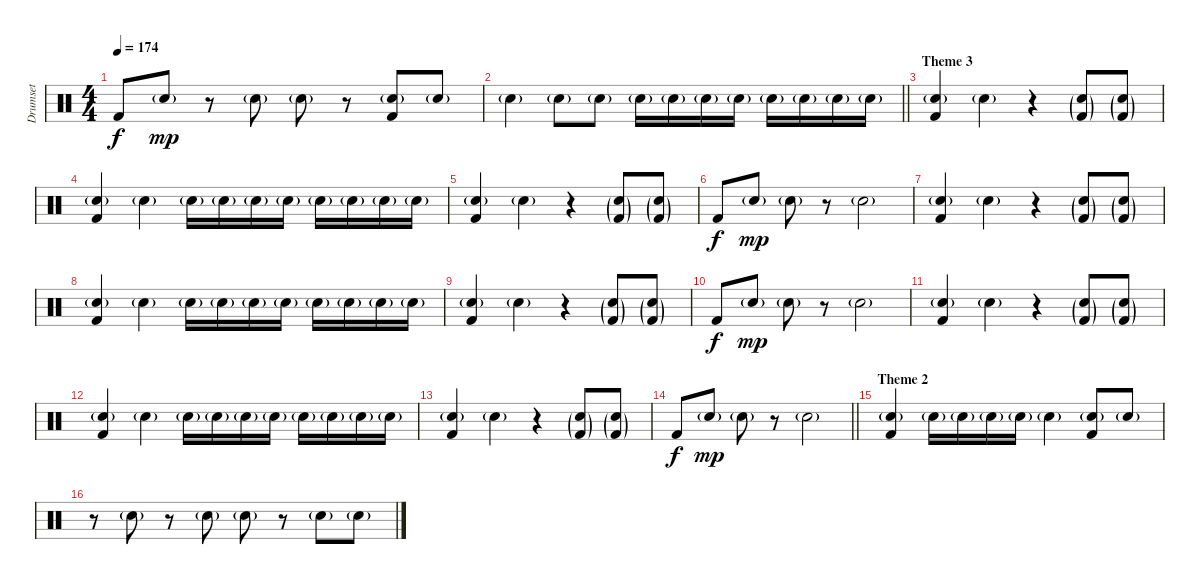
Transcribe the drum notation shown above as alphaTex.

\track ("Drumset" "Drumset") {instrument percussion}
\staff {score}
\articulation defaults
\ts (4 4)
\tempo 174
\clef neutral
\ks c "Kick (hit) 2".8{dy f} "Snare (hit) 2"{g}.8{dy mp}
r.8 "Snare (hit) 2"{g}.8 "Snare (hit) 2"{g}.8 r.8 ("Snare (hit) 2"{g} "Kick (hit) 2").8 "Snare (hit) 2"{g}.8 |
\barLineRight lightlight "Snare (hit) 2"{g}.4 "Snare (hit) 2"{g}.8 "Snare (hit) 2"{g}.8 "Snare (hit) 2"{g}.16 "Snare (hit) 2"{g}.16 "Snare (hit) 2"{g}.16 "Snare (hit) 2"{g}.16 "Snare (hit) 2"{g}.16 "Snare (hit) 2"{g}.16 "Snare (hit) 2"{g}.16 "Snare (hit) 2"{g}.16
|
\section ("" "Theme 3")
("Snare (hit) 2"{g} "Kick (hit) 2").4 "Snare (hit) 2"{g}.4 r.4 ("Snare (hit) 2"{g} "Kick (hit) 2"{g}).8 ("Snare (hit) 2"{g} "Kick (hit) 2"{g}).8 |
("Snare (hit) 2"{g} "Kick (hit) 2").4 "Snare (hit) 2"{g}.4 "Snare (hit) 2"{g}.16 "Snare (hit) 2"{g}.16 "Snare (hit) 2"{g}.16 "Snare (hit) 2"{g}.16 "Snare (hit) 2"{g}.16 "Snare (hit) 2"{g}.16 "Snare (hit) 2"{g}.16 "Snare (hit) 2"{g}.16 |
("Snare (hit) 2"{g} "Kick (hit) 2").4 "Snare (hit) 2"{g}.4 r.4 ("Snare (hit) 2"{g} "Kick (hit) 2"{g}).8 ("Snare (hit) 2"{g} "Kick (hit) 2"{g}).8 |
"Kick (hit) 2".8{dy f} "Snare (hit) 2"{g}.8{dy mp} "Snare (hit) 2"{g}.8 r.8 "Snare (hit) 2"{g}.2 |
("Snare (hit) 2"{g} "Kick (hit) 2").4 "Snare (hit) 2"{g}.4 r.4 ("Snare (hit) 2"{g} "Kick (hit) 2"{g}).8 ("Snare (hit) 2"{g} "Kick (hit) 2"{g}).8 |
("Snare (hit) 2"{g} "Kick (hit) 2").4 "Snare (hit) 2"{g}.4 "Snare (hit) 2"{g}.16 "Snare (hit) 2"{g}.16 "Snare (hit) 2"{g}.16 "Snare (hit) 2"{g}.16 "Snare (hit) 2"{g}.16 "Snare (hit) 2"{g}.16 "Snare (hit) 2"{g}.16 "Snare (hit) 2"{g}.16 |
("Snare (hit) 2"{g} "Kick (hit) 2").4 "Snare (hit) 2"{g}.4 r.4 ("Snare (hit) 2"{g} "Kick (hit) 2"{g}).8 ("Snare (hit) 2"{g} "Kick (hit) 2"{g}).8 |
"Kick (hit) 2".8{dy f} "Snare (hit) 2"{g}.8{dy mp} "Snare (hit) 2"{g}.8 r.8 "Snare (hit) 2"{g}.2 |
("Snare (hit) 2"{g} "Kick (hit) 2").4 "Snare (hit) 2"{g}.4 r.4 ("Snare (hit) 2"{g} "Kick (hit) 2"{g}).8 ("Snare (hit) 2"{g} "Kick (hit) 2"{g}).8 |
("Snare (hit) 2"{g} "Kick (hit) 2").4 "Snare (hit) 2"{g}.4 "Snare (hit) 2"{g}.16 "Snare (hit) 2"{g}.16 "Snare (hit) 2"{g}.16 "Snare (hit) 2"{g}.16 "Snare (hit) 2"{g}.16 "Snare (hit) 2"{g}.16 "Snare (hit) 2"{g}.16 "Snare (hit) 2"{g}.16 |
("Snare (hit) 2"{g} "Kick (hit) 2").4 "Snare (hit) 2"{g}.4 r.4 ("Snare (hit) 2"{g} "Kick (hit) 2"{g}).8 ("Snare (hit) 2"{g} "Kick (hit) 2"{g}).8 |
\barLineRight lightlight "Kick (hit) 2".8{dy f} "Snare (hit) 2"{g}.8{dy mp} "Snare (hit) 2"{g}.8
r.8 "Snare (hit) 2"{g}.2 |
\section ("" "Theme 2")
("Snare (hit) 2"{g} "Kick (hit) 2").4 "Snare (hit) 2"{g}.16 "Snare (hit) 2"{g}.16 "Snare (hit) 2"{g}.16 "Snare (hit) 2"{g}.16 "Snare (hit) 2"{g}.4 ("Snare (hit) 2"{g} "Kick (hit) 2").8 "Snare (hit) 2"{g}.8 |
r.8 "Snare (hit) 2"{g}.8 r.8 "Snare (hit) 2"{g}.8 "Snare (hit) 2"{g}.8 r.8 "Snare (hit) 2"{g}.8 "Snare (hit) 2"{g}.8
